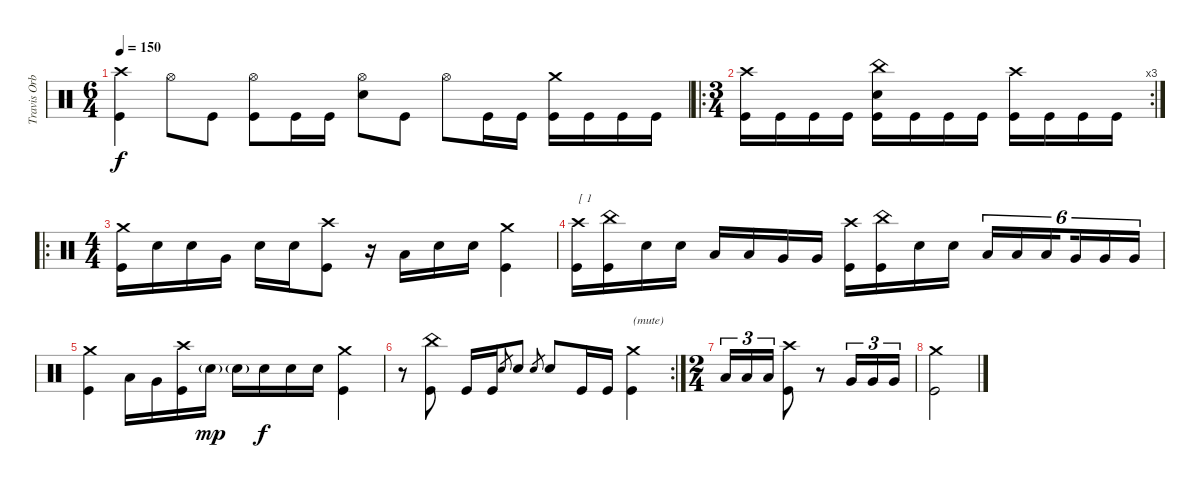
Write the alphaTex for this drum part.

\track ("Travis Orbin" "Travis Orb") {instrument percussion}
\staff {score}
\articulation defaults
\ts (6 4)
\tempo 150
\clef neutral
\ks c
("Crash high (hit)" "Kick (hit)").4{dy f} "Hi-Hat (open)".8 "Kick (hit)".8 ("Hi-Hat (open)" "Kick (hit)").8 "Kick (hit)".16 "Kick (hit)".16 ("Hi-Hat (open)" "Electric Snare (hit)").8 "Kick (hit)".8 "Hi-Hat (open)".8 "Kick (hit)".16 "Kick (hit)".16 ("Crash medium (hit)" "Kick (hit)").16 "Kick (hit)".16 "Kick (hit)".16 "Kick (hit)".16 |
\ro
\rc 3
\ts (3 4)
("Crash high (hit)" "Kick (hit)").16 "Kick (hit)".16 "Kick (hit)".16 "Kick (hit)".16 ("China (hit)" "Electric Snare (hit)" "Kick (hit)").16 "Kick (hit)".16 "Kick (hit)".16 "Kick (hit)".16 ("Crash high (hit)" "Kick (hit)").16 "Kick (hit)".16 "Kick (hit)".16 "Kick (hit)".16 |
\ro
\ts (4 4)
("Crash medium (hit)" "Kick (hit)").16 "Electric Snare (hit)".16 "Electric Snare (hit)".16 "Very Low Tom (hit)".16 "Electric Snare (hit)".16 "Electric Snare (hit)".16 ("Crash high (hit)" "Kick (hit)").8 r.16 "Low Tom (hit)".16 "Electric Snare (hit)".16 "Electric Snare (hit)".16 ("Crash medium (hit)" "Kick (hit)").4 |
("Crash high (hit)" "Kick (hit)").16{txt "[ 1"} ("China (hit)" "Kick (hit)").16 "Electric Snare (hit)".16 "Electric Snare (hit)".16 "Low Tom (hit)".16 "Low Tom (hit)".16 "Very Low Tom (hit)".16 "Very Low Tom (hit)".16 ("Crash high (hit)" "Kick (hit)").16 ("China (hit)" "Kick (hit)").16 "Electric Snare (hit)".16 "Electric Snare (hit)".16 "Low Tom (hit)".16{tu (6 4)} "Low Tom (hit)".16{tu (6 4)} "Low Tom (hit)".16{tu (6 4) beam splitsecondary} "Very Low Tom (hit)".16{tu (6 4)} "Very Low Tom (hit)".16{tu (6 4)} "Very Low Tom (hit)".16{tu (6 4)} |
("Crash medium (hit)" "Kick (hit)").4 "Low Tom (hit)".16 "Very Low Tom (hit)".16 ("Crash high (hit)" "Kick (hit)").16 "Electric Snare (hit)"{g}.16{dy mp} "Electric Snare (hit)"{g}.16 "Electric Snare (hit)".16{dy f} "Electric Snare (hit)".16 "Electric Snare (hit)".16 ("Crash medium (hit)" "Kick (hit)").4 |
\rc 2
r.8 ("China (hit)" "Kick (hit)").8 "Kick (hit)".16 "Kick (hit)".16 "Electric Snare (hit)".8{gr} "Electric Snare (hit)".8 "Electric Snare (hit)".8{gr} "Electric Snare (hit)".8 "Kick (hit)".16 "Kick (hit)".16 ("Crash medium (hit)" "Kick (hit)").4{txt "(mute)"} |
\ts (2 4)
"Low Tom (hit)".16{tu (3 2)} "Low Tom (hit)".16{tu (3 2)} "Low Tom (hit)".16{tu (3 2)} ("Crash high (hit)" "Kick (hit)").8 r.8 "Very Low Tom (hit)".16{tu (3 2)} "Very Low Tom (hit)".16{tu (3 2)} "Very Low Tom (hit)".16{tu (3 2)} |
("Crash medium (hit)" "Kick (hit)").2
